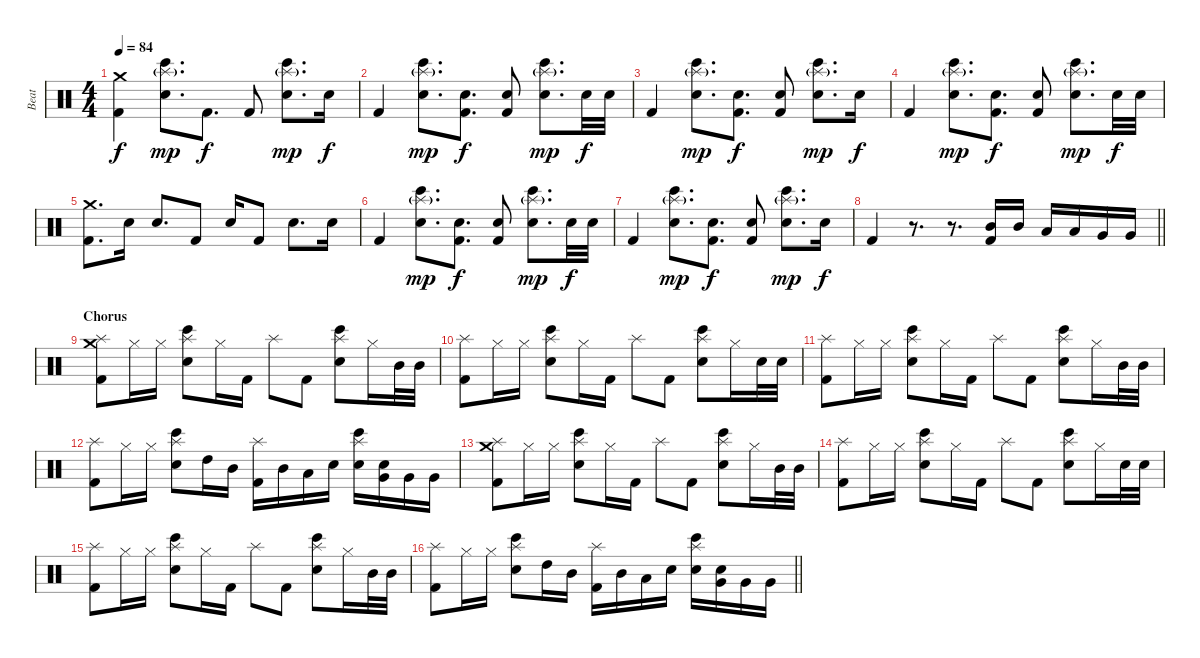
\track ("Beat" "Beat") {instrument percussion}
\staff {score}
\articulation defaults
\ts (4 4)
\tempo 84
\clef neutral
\ks c
("Crash medium (hit)" "Kick (hit) 2").4{dy f} ("Splash (hit)"{g} "Snare (hit) 2" "Bongo High (hit)").8{d dy mp} "Kick (hit) 2".8{d dy f} "Kick (hit) 2".8 ("Splash (hit)"{g} "Snare (hit) 2" "Bongo High (hit)").8{d dy mp} "Snare (hit) 2".16{dy f} |
"Kick (hit) 2".4 ("Splash (hit)"{g} "Snare (hit) 2" "Bongo High (hit)").8{d dy mp} ("Snare (hit) 2" "Kick (hit) 2").8{d dy f} ("Snare (hit) 2" "Kick (hit) 2").8 ("Splash (hit)"{g} "Snare (hit) 2" "Bongo High (hit)").8{d dy mp} "Snare (hit) 2".32{dy f} "Snare (hit) 2".32 |
"Kick (hit) 2".4 ("Splash (hit)"{g} "Snare (hit) 2" "Bongo High (hit)").8{d dy mp} ("Snare (hit) 2" "Kick (hit) 2").8{d dy f} ("Snare (hit) 2" "Kick (hit) 2").8 ("Splash (hit)"{g} "Snare (hit) 2" "Bongo High (hit)").8{d dy mp} "Snare (hit) 2".16{dy f} |
"Kick (hit) 2".4 ("Splash (hit)"{g} "Snare (hit) 2" "Bongo High (hit)").8{d dy mp} ("Snare (hit) 2" "Kick (hit) 2").8{d dy f} ("Snare (hit) 2" "Kick (hit) 2").8 ("Splash (hit)"{g} "Snare (hit) 2" "Bongo High (hit)").8{d dy mp} "Snare (hit) 2".32{dy f} "Snare (hit) 2".32 |
("Crash medium (hit)" "Kick (hit) 2").8{d} "Snare (hit) 2".16 "Snare (hit) 2".8{d} "Kick (hit) 2".8 "Snare (hit) 2".16 "Kick (hit) 2".8 "Snare (hit) 2".8{d} "Snare (hit) 2".16 |
"Kick (hit) 2".4 ("Splash (hit)"{g} "Snare (hit) 2" "Bongo High (hit)").8{d dy mp} ("Snare (hit) 2" "Kick (hit) 2").8{d dy f} ("Snare (hit) 2" "Kick (hit) 2").8 ("Splash (hit)"{g} "Snare (hit) 2" "Bongo High (hit)").8{d dy mp} "Snare (hit) 2".32{dy f} "Snare (hit) 2".32 |
"Kick (hit) 2".4 ("Splash (hit)"{g} "Snare (hit) 2" "Bongo High (hit)").8{d dy mp} ("Snare (hit) 2" "Kick (hit) 2").8{d dy f} ("Snare (hit) 2" "Kick (hit) 2").8 ("Splash (hit)"{g} "Snare (hit) 2" "Bongo High (hit)").8{d dy mp} "Snare (hit) 2".16{dy f} |
\barLineRight lightlight "Kick (hit) 2".4
r.8{d} r.8{d} ("Mid Tom (hit)" "Kick (hit) 2").16 "Mid Tom (hit)".16 "Low Tom (hit)".16 "Low Tom (hit)".16 "Very Low Tom (hit)".16 "Very Low Tom (hit)".16 |
\section ("" "Chorus")
("Crash medium (hit)" "Splash (hit)" "Kick (hit) 2").8 "Hi-Hat (closed)".16 "Hi-Hat (closed)".16 ("Splash (hit)" "Snare (hit) 2" "Bongo High (hit)").8 "Hi-Hat (closed)".16 "Kick (hit) 2".16 "Splash (hit)".8 "Kick (hit) 2".8 ("Splash (hit)" "Snare (hit) 2" "Bongo High (hit)").8 "Hi-Hat (closed)".16 "Mid Tom (hit)".32 "Mid Tom (hit)".32 |
("Splash (hit)" "Kick (hit) 2").8 "Hi-Hat (closed)".16 "Hi-Hat (closed)".16 ("Splash (hit)" "Snare (hit) 2" "Bongo High (hit)").8 "Hi-Hat (closed)".16 "Kick (hit) 2".16 "Splash (hit)".8 "Kick (hit) 2".8 ("Splash (hit)" "Snare (hit) 2" "Bongo High (hit)").8 "Hi-Hat (closed)".16 "Snare (hit) 2".32 "Snare (hit) 2".32 |
("Splash (hit)" "Kick (hit) 2").8 "Hi-Hat (closed)".16 "Hi-Hat (closed)".16 ("Splash (hit)" "Snare (hit) 2" "Bongo High (hit)").8 "Hi-Hat (closed)".16 "Kick (hit) 2".16 "Splash (hit)".8 "Kick (hit) 2".8 ("Splash (hit)" "Snare (hit) 2" "Bongo High (hit)").8 "Hi-Hat (closed)".16 "Mid Tom (hit)".32 "Mid Tom (hit)".32 |
("Splash (hit)" "Kick (hit) 2").8 "Hi-Hat (closed)".16 "Hi-Hat (closed)".16 ("Splash (hit)" "Snare (hit) 2" "Bongo High (hit)").8 "High Tom (hit)".16 "Mid Tom (hit)".16 ("Splash (hit)" "Kick (hit) 2").16 "Mid Tom (hit)".16 "Low Tom (hit)".16 "Snare (hit) 2".16 ("Splash (hit)" "Snare (hit) 2" "Bongo High (hit)").16 ("Snare (hit) 2" "Very Low Tom (hit)").16 "Very Low Tom (hit)".16 "Very Low Tom (hit)".16 |
("Crash medium (hit)" "Splash (hit)" "Kick (hit) 2").8 "Hi-Hat (closed)".16 "Hi-Hat (closed)".16 ("Splash (hit)" "Snare (hit) 2" "Bongo High (hit)").8 "Hi-Hat (closed)".16 "Kick (hit) 2".16 "Splash (hit)".8 "Kick (hit) 2".8 ("Splash (hit)" "Snare (hit) 2" "Bongo High (hit)").8 "Hi-Hat (closed)".16 "Mid Tom (hit)".32 "Mid Tom (hit)".32 |
("Splash (hit)" "Kick (hit) 2").8 "Hi-Hat (closed)".16 "Hi-Hat (closed)".16 ("Splash (hit)" "Snare (hit) 2" "Bongo High (hit)").8 "Hi-Hat (closed)".16 "Kick (hit) 2".16 "Splash (hit)".8 "Kick (hit) 2".8 ("Splash (hit)" "Snare (hit) 2" "Bongo High (hit)").8 "Hi-Hat (closed)".16 "Snare (hit) 2".32 "Snare (hit) 2".32 |
("Splash (hit)" "Kick (hit) 2").8 "Hi-Hat (closed)".16 "Hi-Hat (closed)".16 ("Splash (hit)" "Snare (hit) 2" "Bongo High (hit)").8 "Hi-Hat (closed)".16 "Kick (hit) 2".16 "Splash (hit)".8 "Kick (hit) 2".8 ("Splash (hit)" "Snare (hit) 2" "Bongo High (hit)").8 "Hi-Hat (closed)".16 "Mid Tom (hit)".32 "Mid Tom (hit)".32 |
\barLineRight lightlight
("Splash (hit)" "Kick (hit) 2").8 "Hi-Hat (closed)".16 "Hi-Hat (closed)".16 ("Splash (hit)" "Snare (hit) 2" "Bongo High (hit)").8 "High Tom (hit)".16 "Mid Tom (hit)".16 ("Splash (hit)" "Kick (hit) 2").16 "Mid Tom (hit)".16 "Low Tom (hit)".16 "Snare (hit) 2".16 ("Splash (hit)" "Snare (hit) 2" "Bongo High (hit)").16 ("Snare (hit) 2" "Very Low Tom (hit)").16 "Very Low Tom (hit)".16 "Very Low Tom (hit)".16
